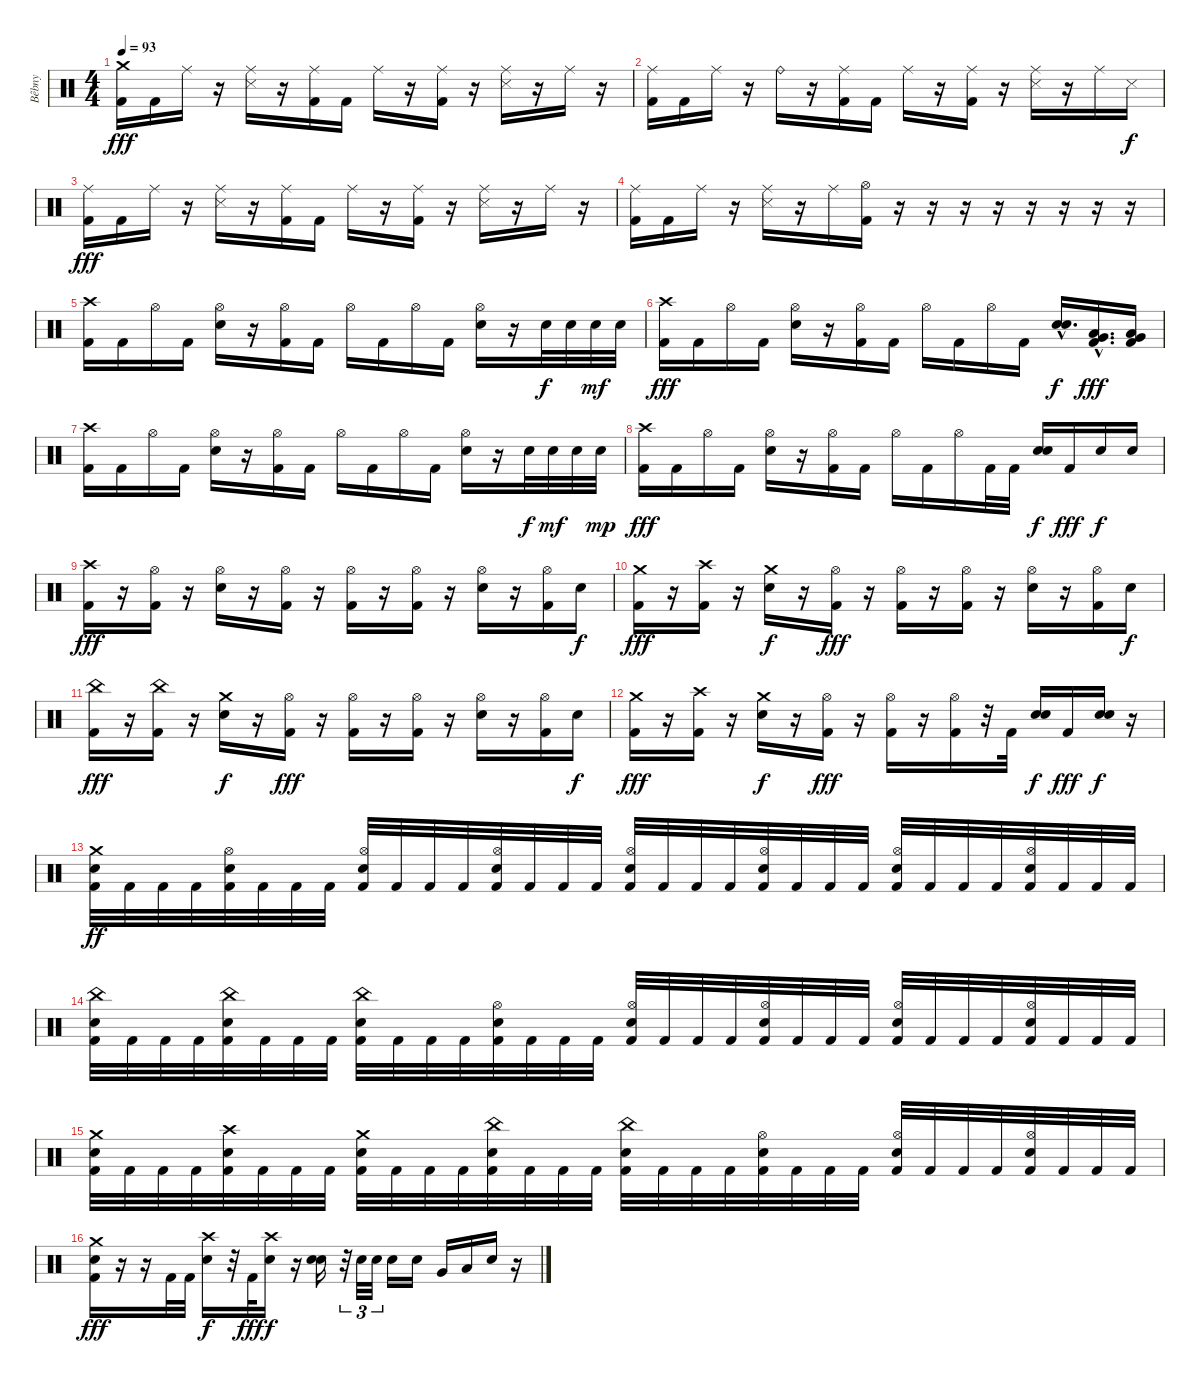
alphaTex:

\track ("Bêbny" "Bêbny") {instrument percussion}
\staff {score}
\articulation defaults
\ts (4 4)
\tempo 93
\clef neutral
\ks c
("Crash medium (hit)" "Kick (hit) 2").16{dy fff} "Kick (hit) 2".16 "Ride (middle)".16 r.16 ("Ride (middle)" "Snare (side stick) 3").16 r.16 ("Ride (middle)" "Kick (hit) 2").16 "Kick (hit) 2".16 "Ride (middle)".16 r.16 ("Ride (middle)" "Kick (hit) 2").16 r.16 ("Ride (middle)" "Snare (side stick) 3").16 r.16 "Ride (middle)".16 r.16 |
("Ride (middle)" "Kick (hit) 2").16 "Kick (hit) 2".16 "Ride (middle)".16 r.16 "Ride (bell)".16 r.16 ("Ride (middle)" "Kick (hit) 2").16 "Kick (hit) 2".16 "Ride (middle)".16 r.16 ("Ride (middle)" "Kick (hit) 2").16 r.16 ("Ride (middle)" "Snare (side stick) 3").16 r.16 "Ride (middle)".16 "Snare (side stick) 3".16{dy f} |
("Ride (middle)" "Kick (hit) 2").16{dy fff} "Kick (hit) 2".16 "Ride (middle)".16 r.16 ("Ride (middle)" "Snare (side stick) 3").16 r.16 ("Ride (middle)" "Kick (hit) 2").16 "Kick (hit) 2".16 "Ride (middle)".16 r.16 ("Ride (middle)" "Kick (hit) 2").16 r.16 ("Ride (middle)" "Snare (side stick) 3").16 r.16 "Ride (middle)".16 r.16 |
("Ride (middle)" "Kick (hit) 2").16 "Kick (hit) 2".16 "Ride (middle)".16 r.16 ("Ride (middle)" "Snare (side stick) 3").16 r.16 "Ride (middle)".16 ("Hi-Hat (open)" "Kick (hit) 2").16 r.16 r.16 r.16 r.16 r.16 r.16 r.16 r.16 |
("Crash high (hit)" "Kick (hit) 2").16 "Kick (hit) 2".16 "Hi-Hat (open)".16 "Kick (hit) 2".16 ("Hi-Hat (open)" "Electric Snare (hit)").16 r.16 ("Hi-Hat (open)" "Kick (hit) 2").16 "Kick (hit) 2".16 "Hi-Hat (open)".16 "Kick (hit) 2".16 "Hi-Hat (open)".16 "Kick (hit) 2".16 ("Hi-Hat (open)" "Electric Snare (hit)").16 r.16 "Electric Snare (hit)".32{dy f} "Electric Snare (hit)".32 "Electric Snare (hit)".32{dy mf} "Electric Snare (hit)".32 |
("Crash high (hit)" "Kick (hit) 2").16{dy fff} "Kick (hit) 2".16 "Hi-Hat (open)".16 "Kick (hit) 2".16 ("Hi-Hat (open)" "Electric Snare (hit)").16 r.16 ("Hi-Hat (open)" "Kick (hit) 2").16 "Kick (hit) 2".16 "Hi-Hat (open)".16 "Kick (hit) 2".16 "Hi-Hat (open)".16 "Kick (hit) 2".16 ("Electric Snare (hit)"{hac} "Electric Snare (hit)"{hac}).16{d bd 120 dy f} ("Very Low Tom (hit)"{hac} "Low Floor Tom (hit)"{hac} "Kick (hit) 2"{hac}).16{d dy fff} ("Very Low Tom (hit)" "Low Floor Tom (hit)" "Kick (hit) 2").16 |
("Crash high (hit)" "Kick (hit) 2").16 "Kick (hit) 2".16 "Hi-Hat (open)".16 "Kick (hit) 2".16 ("Hi-Hat (open)" "Electric Snare (hit)").16 r.16 ("Hi-Hat (open)" "Kick (hit) 2").16 "Kick (hit) 2".16 "Hi-Hat (open)".16 "Kick (hit) 2".16 "Hi-Hat (open)".16 "Kick (hit) 2".16 ("Hi-Hat (open)" "Electric Snare (hit)").16 r.16 "Electric Snare (hit)".32{dy f} "Electric Snare (hit)".32{dy mf} "Electric Snare (hit)".32 "Electric Snare (hit)".32{dy mp} |
("Crash high (hit)" "Kick (hit) 2").16{dy fff} "Kick (hit) 2".16 "Hi-Hat (open)".16 "Kick (hit) 2".16 ("Hi-Hat (open)" "Electric Snare (hit)").16 r.16 ("Hi-Hat (open)" "Kick (hit) 2").16 "Kick (hit) 2".16 "Hi-Hat (open)".16 "Kick (hit) 2".16 "Hi-Hat (open)".16 "Kick (hit) 2".32 "Kick (hit) 2".32 ("Electric Snare (hit)" "Electric Snare (hit)").16{bd 120 dy f} "Kick (hit) 2".16{dy fff} "Electric Snare (hit)".16{dy f} "Electric Snare (hit)".16 |
("Crash high (hit)" "Kick (hit) 2").16{dy fff} r.16 ("Hi-Hat (open)" "Kick (hit) 2").16 r.16 ("Hi-Hat (open)" "Electric Snare (hit)").16 r.16 ("Hi-Hat (open)" "Kick (hit) 2").16 r.16 ("Hi-Hat (open)" "Kick (hit) 2").16 r.16 ("Hi-Hat (open)" "Kick (hit) 2").16 r.16 ("Hi-Hat (open)" "Electric Snare (hit)").16 r.16 ("Hi-Hat (open)" "Kick (hit) 2").16 "Electric Snare (hit)".16{dy f} |
("Crash medium (hit)" "Kick (hit) 2").16{dy fff} r.16 ("Crash high (hit)" "Kick (hit) 2").16 r.16 ("Crash medium (hit)" "Electric Snare (hit)").16{dy f} r.16 ("Hi-Hat (open)" "Kick (hit) 2").16{dy fff} r.16 ("Hi-Hat (open)" "Kick (hit) 2").16 r.16 ("Hi-Hat (open)" "Kick (hit) 2").16 r.16 ("Hi-Hat (open)" "Electric Snare (hit)").16 r.16 ("Hi-Hat (open)" "Kick (hit) 2").16 "Electric Snare (hit)".16{dy f} |
("China (hit)" "Kick (hit) 2").16{dy fff} r.16 ("China (hit)" "Kick (hit) 2").16 r.16 ("Crash medium (hit)" "Electric Snare (hit)").16{dy f} r.16 ("Hi-Hat (open)" "Kick (hit) 2").16{dy fff} r.16 ("Hi-Hat (open)" "Kick (hit) 2").16 r.16 ("Hi-Hat (open)" "Kick (hit) 2").16 r.16 ("Hi-Hat (open)" "Electric Snare (hit)").16 r.16 ("Hi-Hat (open)" "Kick (hit) 2").16 "Electric Snare (hit)".16{dy f} |
("Crash medium (hit)" "Kick (hit) 2").16{dy fff} r.16 ("Crash high (hit)" "Kick (hit) 2").16 r.16 ("Crash medium (hit)" "Electric Snare (hit)").16{dy f} r.16 ("Hi-Hat (open)" "Kick (hit) 2").16{dy fff} r.16 ("Hi-Hat (open)" "Kick (hit) 2").16 r.16 ("Hi-Hat (open)" "Kick (hit) 2").16 r.32 "Kick (hit) 2".32 ("Electric Snare (hit)" "Electric Snare (hit)").16{bd 240 dy f} "Kick (hit) 2".16{dy fff} ("Electric Snare (hit)" "Electric Snare (hit)").16{bd 60 dy f} r.16 |
("Crash medium (hit)" "Electric Snare (hit)" "Kick (hit) 2").32{dy ff} "Kick (hit) 2".32 "Kick (hit) 2".32 "Kick (hit) 2".32 ("Hi-Hat (open)" "Electric Snare (hit)" "Kick (hit) 2").32 "Kick (hit) 2".32 "Kick (hit) 2".32 "Kick (hit) 2".32 ("Hi-Hat (open)" "Electric Snare (hit)" "Kick (hit) 2").32 "Kick (hit) 2".32 "Kick (hit) 2".32 "Kick (hit) 2".32 ("Hi-Hat (open)" "Electric Snare (hit)" "Kick (hit) 2").32 "Kick (hit) 2".32 "Kick (hit) 2".32 "Kick (hit) 2".32 ("Hi-Hat (open)" "Electric Snare (hit)" "Kick (hit) 2").32 "Kick (hit) 2".32 "Kick (hit) 2".32 "Kick (hit) 2".32 ("Hi-Hat (open)" "Electric Snare (hit)" "Kick (hit) 2").32 "Kick (hit) 2".32 "Kick (hit) 2".32 "Kick (hit) 2".32 ("Hi-Hat (open)" "Electric Snare (hit)" "Kick (hit) 2").32 "Kick (hit) 2".32 "Kick (hit) 2".32 "Kick (hit) 2".32 ("Hi-Hat (open)" "Electric Snare (hit)" "Kick (hit) 2").32 "Kick (hit) 2".32 "Kick (hit) 2".32 "Kick (hit) 2".32 |
("China (hit)" "Electric Snare (hit)" "Kick (hit) 2").32 "Kick (hit) 2".32 "Kick (hit) 2".32 "Kick (hit) 2".32 ("China (hit)" "Electric Snare (hit)" "Kick (hit) 2").32 "Kick (hit) 2".32 "Kick (hit) 2".32 "Kick (hit) 2".32 ("China (hit)" "Electric Snare (hit)" "Kick (hit) 2").32 "Kick (hit) 2".32 "Kick (hit) 2".32 "Kick (hit) 2".32 ("Hi-Hat (open)" "Electric Snare (hit)" "Kick (hit) 2").32 "Kick (hit) 2".32 "Kick (hit) 2".32 "Kick (hit) 2".32 ("Hi-Hat (open)" "Electric Snare (hit)" "Kick (hit) 2").32 "Kick (hit) 2".32 "Kick (hit) 2".32 "Kick (hit) 2".32 ("Hi-Hat (open)" "Electric Snare (hit)" "Kick (hit) 2").32 "Kick (hit) 2".32 "Kick (hit) 2".32 "Kick (hit) 2".32 ("Hi-Hat (open)" "Electric Snare (hit)" "Kick (hit) 2").32 "Kick (hit) 2".32 "Kick (hit) 2".32 "Kick (hit) 2".32 ("Hi-Hat (open)" "Electric Snare (hit)" "Kick (hit) 2").32 "Kick (hit) 2".32 "Kick (hit) 2".32 "Kick (hit) 2".32 |
("Crash medium (hit)" "Electric Snare (hit)" "Kick (hit) 2").32 "Kick (hit) 2".32 "Kick (hit) 2".32 "Kick (hit) 2".32 ("Crash high (hit)" "Electric Snare (hit)" "Kick (hit) 2").32 "Kick (hit) 2".32 "Kick (hit) 2".32 "Kick (hit) 2".32 ("Crash medium (hit)" "Electric Snare (hit)" "Kick (hit) 2").32 "Kick (hit) 2".32 "Kick (hit) 2".32 "Kick (hit) 2".32 ("China (hit)" "Electric Snare (hit)" "Kick (hit) 2").32 "Kick (hit) 2".32 "Kick (hit) 2".32 "Kick (hit) 2".32 ("China (hit)" "Electric Snare (hit)" "Kick (hit) 2").32 "Kick (hit) 2".32 "Kick (hit) 2".32 "Kick (hit) 2".32 ("Hi-Hat (open)" "Electric Snare (hit)" "Kick (hit) 2").32 "Kick (hit) 2".32 "Kick (hit) 2".32 "Kick (hit) 2".32 ("Hi-Hat (open)" "Electric Snare (hit)" "Kick (hit) 2").32 "Kick (hit) 2".32 "Kick (hit) 2".32 "Kick (hit) 2".32 ("Hi-Hat (open)" "Electric Snare (hit)" "Kick (hit) 2").32 "Kick (hit) 2".32 "Kick (hit) 2".32 "Kick (hit) 2".32 |
("Crash medium (hit)" "Electric Snare (hit)" "Kick (hit) 2").16{dy fff} r.16 r.16 "Kick (hit) 2".32 "Kick (hit) 2".32 ("Crash high (hit)" "Electric Snare (hit)").16{dy f} r.32 "Kick (hit) 2".32{dy fff} ("Crash high (hit)" "Electric Snare (hit)").16{dy f} r.16 ("Electric Snare (hit)" "Electric Snare (hit)").16 r.32{tu (3 2)} "Electric Snare (hit)".32{tu (3 2)} "Electric Snare (hit)".32{tu (3 2)} "Electric Snare (hit)".16 "Electric Snare (hit)".16 "Very Low Tom (hit)".16 "Low Floor Tom (hit)".16 "Electric Snare (hit)".16 r.16
